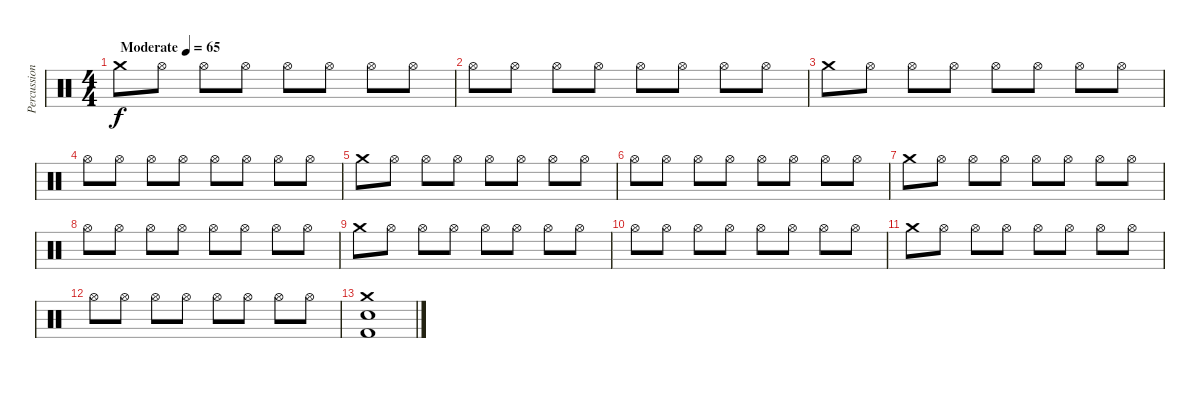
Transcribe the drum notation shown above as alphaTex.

\track ("Percussion" "Percussion") {instrument percussion}
\staff {score}
\articulation defaults
\ts (4 4)
\tempo (65 "Moderate")
\clef neutral
\ks c "Crash medium (hit)".8{dy f} "Hi-Hat (open)".8 "Hi-Hat (open)".8 "Hi-Hat (open)".8 "Hi-Hat (open)".8 "Hi-Hat (open)".8 "Hi-Hat (open)".8 "Hi-Hat (open)".8
|
"Hi-Hat (open)".8 "Hi-Hat (open)".8 "Hi-Hat (open)".8 "Hi-Hat (open)".8 "Hi-Hat (open)".8 "Hi-Hat (open)".8 "Hi-Hat (open)".8 "Hi-Hat (open)".8 |
"Crash medium (hit)".8 "Hi-Hat (open)".8 "Hi-Hat (open)".8 "Hi-Hat (open)".8 "Hi-Hat (open)".8 "Hi-Hat (open)".8 "Hi-Hat (open)".8 "Hi-Hat (open)".8 |
"Hi-Hat (open)".8 "Hi-Hat (open)".8 "Hi-Hat (open)".8 "Hi-Hat (open)".8 "Hi-Hat (open)".8 "Hi-Hat (open)".8 "Hi-Hat (open)".8 "Hi-Hat (open)".8 |
"Crash medium (hit)".8 "Hi-Hat (open)".8 "Hi-Hat (open)".8 "Hi-Hat (open)".8 "Hi-Hat (open)".8 "Hi-Hat (open)".8 "Hi-Hat (open)".8 "Hi-Hat (open)".8 |
"Hi-Hat (open)".8 "Hi-Hat (open)".8 "Hi-Hat (open)".8 "Hi-Hat (open)".8 "Hi-Hat (open)".8 "Hi-Hat (open)".8 "Hi-Hat (open)".8 "Hi-Hat (open)".8 |
"Crash medium (hit)".8 "Hi-Hat (open)".8 "Hi-Hat (open)".8 "Hi-Hat (open)".8 "Hi-Hat (open)".8 "Hi-Hat (open)".8 "Hi-Hat (open)".8 "Hi-Hat (open)".8 |
"Hi-Hat (open)".8 "Hi-Hat (open)".8 "Hi-Hat (open)".8 "Hi-Hat (open)".8 "Hi-Hat (open)".8 "Hi-Hat (open)".8 "Hi-Hat (open)".8 "Hi-Hat (open)".8 |
"Crash medium (hit)".8 "Hi-Hat (open)".8 "Hi-Hat (open)".8 "Hi-Hat (open)".8 "Hi-Hat (open)".8 "Hi-Hat (open)".8 "Hi-Hat (open)".8 "Hi-Hat (open)".8 |
"Hi-Hat (open)".8 "Hi-Hat (open)".8 "Hi-Hat (open)".8 "Hi-Hat (open)".8 "Hi-Hat (open)".8 "Hi-Hat (open)".8 "Hi-Hat (open)".8 "Hi-Hat (open)".8 |
"Crash medium (hit)".8 "Hi-Hat (open)".8 "Hi-Hat (open)".8 "Hi-Hat (open)".8 "Hi-Hat (open)".8 "Hi-Hat (open)".8 "Hi-Hat (open)".8 "Hi-Hat (open)".8 |
"Hi-Hat (open)".8 "Hi-Hat (open)".8 "Hi-Hat (open)".8 "Hi-Hat (open)".8 "Hi-Hat (open)".8 "Hi-Hat (open)".8 "Hi-Hat (open)".8 "Hi-Hat (open)".8 |
("Crash medium (hit)" "Electric Snare (hit)" "Kick (hit) 2").1
